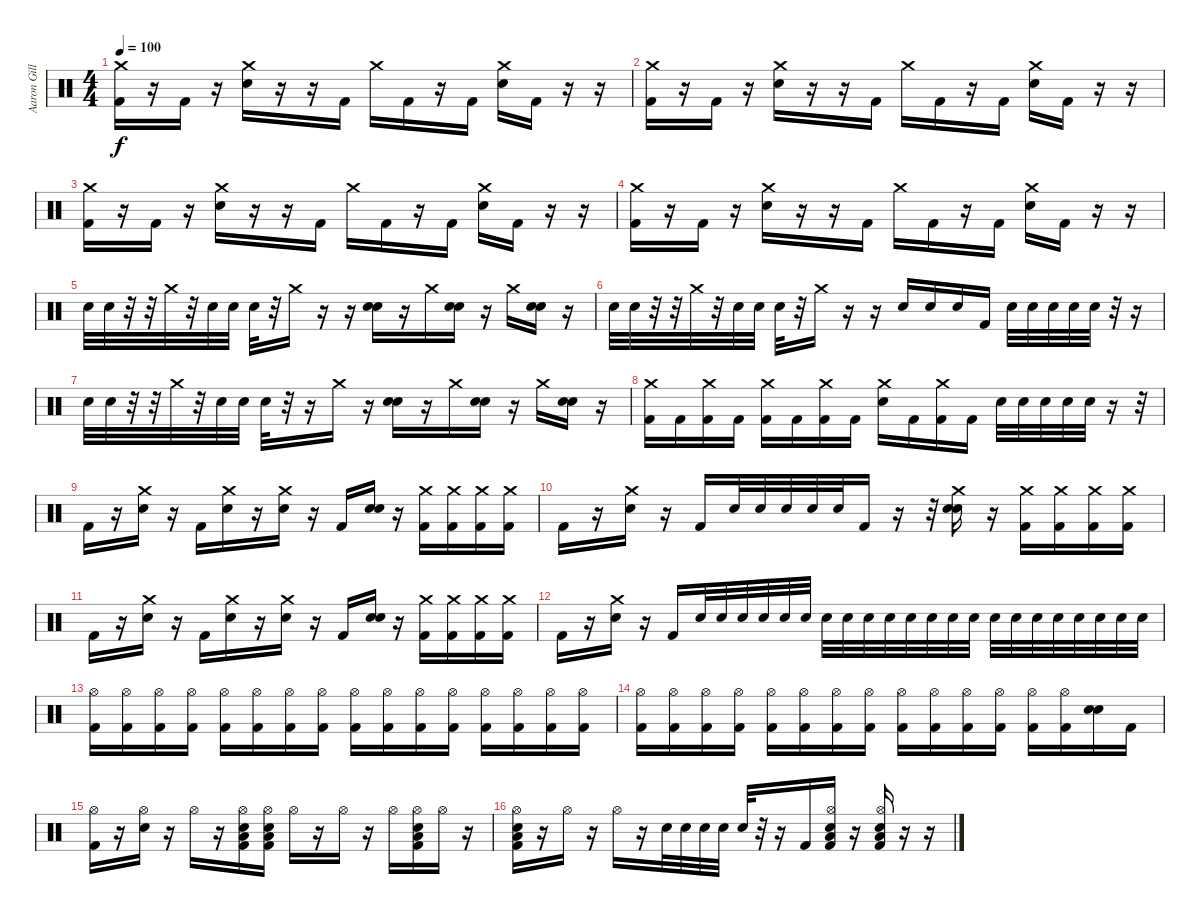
\track ("Aaron Gillespie" "Aaron Gill") {instrument percussion}
\staff {score}
\articulation defaults
\ts (4 4)
\tempo 100
\clef neutral
\ks c
("Crash medium (hit)" "Kick (hit) 2").16{dy f} r.16 "Kick (hit) 2".16 r.16 ("Crash medium (hit)" "Electric Snare (hit)").16 r.16 r.16 "Kick (hit) 2".16 "Crash medium (hit)".16 "Kick (hit) 2".16 r.16 "Kick (hit) 2".16 ("Crash medium (hit)" "Electric Snare (hit)").16 "Kick (hit) 2".16 r.16 r.16 |
("Crash medium (hit)" "Kick (hit) 2").16 r.16 "Kick (hit) 2".16 r.16 ("Crash medium (hit)" "Electric Snare (hit)").16 r.16 r.16 "Kick (hit) 2".16 "Crash medium (hit)".16 "Kick (hit) 2".16 r.16 "Kick (hit) 2".16 ("Crash medium (hit)" "Electric Snare (hit)").16 "Kick (hit) 2".16 r.16 r.16 |
("Crash medium (hit)" "Kick (hit) 2").16 r.16 "Kick (hit) 2".16 r.16 ("Crash medium (hit)" "Electric Snare (hit)").16 r.16 r.16 "Kick (hit) 2".16 "Crash medium (hit)".16 "Kick (hit) 2".16 r.16 "Kick (hit) 2".16 ("Crash medium (hit)" "Electric Snare (hit)").16 "Kick (hit) 2".16 r.16 r.16 |
("Crash medium (hit)" "Kick (hit) 2").16 r.16 "Kick (hit) 2".16 r.16 ("Crash medium (hit)" "Electric Snare (hit)").16 r.16 r.16 "Kick (hit) 2".16 "Crash medium (hit)".16 "Kick (hit) 2".16 r.16 "Kick (hit) 2".16 ("Crash medium (hit)" "Electric Snare (hit)").16 "Kick (hit) 2".16 r.16 r.16 |
"Electric Snare (hit)".32 "Electric Snare (hit)".32 r.32 r.32 "Crash medium (hit)".32 r.32 "Electric Snare (hit)".32 "Electric Snare (hit)".32 "Electric Snare (hit)".32 r.32 "Crash medium (hit)".16 r.16 r.16 ("Electric Snare (hit)" "Electric Snare (hit)").16 r.16 "Crash medium (hit)".16 ("Electric Snare (hit)" "Electric Snare (hit)").16 r.16 "Crash medium (hit)".16 ("Electric Snare (hit)" "Electric Snare (hit)").16 r.16 |
"Electric Snare (hit)".32 "Electric Snare (hit)".32 r.32 r.32 "Crash medium (hit)".32 r.32 "Electric Snare (hit)".32 "Electric Snare (hit)".32 "Electric Snare (hit)".32 r.32 "Crash medium (hit)".16 r.16 r.16 "Electric Snare (hit)".16 "Electric Snare (hit)".16 "Electric Snare (hit)".16 "Kick (hit) 2".16 "Electric Snare (hit)".32 "Electric Snare (hit)".32 "Electric Snare (hit)".32 "Electric Snare (hit)".32 "Electric Snare (hit)".32 r.32 r.16 |
"Electric Snare (hit)".32 "Electric Snare (hit)".32 r.32 r.32 "Crash medium (hit)".32 r.32 "Electric Snare (hit)".32 "Electric Snare (hit)".32 "Electric Snare (hit)".32 r.32 r.16 "Crash medium (hit)".16 r.16 ("Electric Snare (hit)" "Electric Snare (hit)").16 r.16 "Crash medium (hit)".16 ("Electric Snare (hit)" "Electric Snare (hit)").16 r.16 "Crash medium (hit)".16 ("Electric Snare (hit)" "Electric Snare (hit)").16 r.16 |
("Crash medium (hit)" "Kick (hit) 2").16 "Kick (hit) 2".16 ("Crash medium (hit)" "Kick (hit) 2").16 "Kick (hit) 2".16 ("Crash medium (hit)" "Kick (hit) 2").16 "Kick (hit) 2".16 ("Crash medium (hit)" "Kick (hit) 2").16 "Kick (hit) 2".16 ("Crash medium (hit)" "Electric Snare (hit)").16 "Kick (hit) 2".16 ("Crash medium (hit)" "Kick (hit) 2").16 "Kick (hit) 2".16 "Electric Snare (hit)".32 "Electric Snare (hit)".32 "Electric Snare (hit)".32 "Electric Snare (hit)".32 "Electric Snare (hit)".32 r.16 r.32 |
"Kick (hit) 2".16 r.16 ("Crash medium (hit)" "Electric Snare (hit)").16 r.16 "Kick (hit) 2".16 ("Crash medium (hit)" "Electric Snare (hit)").16 r.16 ("Crash medium (hit)" "Electric Snare (hit)").16 r.16 "Kick (hit) 2".16 ("Electric Snare (hit)" "Electric Snare (hit)").16 r.16 ("Crash medium (hit)" "Kick (hit) 2").16 ("Crash medium (hit)" "Kick (hit) 2").16 ("Crash medium (hit)" "Kick (hit) 2").16 ("Crash medium (hit)" "Kick (hit) 2").16 |
"Kick (hit) 2".16 r.16 ("Crash medium (hit)" "Electric Snare (hit)").16 r.16 "Kick (hit) 2".16 "Electric Snare (hit)".32 "Electric Snare (hit)".32 "Electric Snare (hit)".32 "Electric Snare (hit)".32 "Electric Snare (hit)".32 "Kick (hit) 2".16 r.16 r.32 ("Crash medium (hit)" "Electric Snare (hit)" "Electric Snare (hit)").16 r.16 ("Crash medium (hit)" "Kick (hit) 2").16 ("Crash medium (hit)" "Kick (hit) 2").16 ("Crash medium (hit)" "Kick (hit) 2").16 ("Crash medium (hit)" "Kick (hit) 2").16 |
"Kick (hit) 2".16 r.16 ("Crash medium (hit)" "Electric Snare (hit)").16 r.16 "Kick (hit) 2".16 ("Crash medium (hit)" "Electric Snare (hit)").16 r.16 ("Crash medium (hit)" "Electric Snare (hit)").16 r.16 "Kick (hit) 2".16 ("Electric Snare (hit)" "Electric Snare (hit)").16 r.16 ("Crash medium (hit)" "Kick (hit) 2").16 ("Crash medium (hit)" "Kick (hit) 2").16 ("Crash medium (hit)" "Kick (hit) 2").16 ("Crash medium (hit)" "Kick (hit) 2").16 |
"Kick (hit) 2".16 r.16 ("Crash medium (hit)" "Electric Snare (hit)").16 r.16 "Kick (hit) 2".16 "Electric Snare (hit)".32 "Electric Snare (hit)".32 "Electric Snare (hit)".32 "Electric Snare (hit)".32 "Electric Snare (hit)".32 "Electric Snare (hit)".32 "Electric Snare (hit)".32 "Electric Snare (hit)".32 "Electric Snare (hit)".32 "Electric Snare (hit)".32 "Electric Snare (hit)".32 "Electric Snare (hit)".32 "Electric Snare (hit)".32 "Electric Snare (hit)".32 "Electric Snare (hit)".32 "Electric Snare (hit)".32 "Electric Snare (hit)".32 "Electric Snare (hit)".32 "Electric Snare (hit)".32 "Electric Snare (hit)".32 "Electric Snare (hit)".32 "Electric Snare (hit)".32 |
("Hi-Hat (open)" "Kick (hit) 2").16 ("Hi-Hat (open)" "Kick (hit) 2").16 ("Hi-Hat (open)" "Kick (hit) 2").16 ("Hi-Hat (open)" "Kick (hit) 2").16 ("Hi-Hat (open)" "Kick (hit) 2").16 ("Hi-Hat (open)" "Kick (hit) 2").16 ("Hi-Hat (open)" "Kick (hit) 2").16 ("Hi-Hat (open)" "Kick (hit) 2").16 ("Hi-Hat (open)" "Kick (hit) 2").16 ("Hi-Hat (open)" "Kick (hit) 2").16 ("Hi-Hat (open)" "Kick (hit) 2").16 ("Hi-Hat (open)" "Kick (hit) 2").16 ("Hi-Hat (open)" "Kick (hit) 2").16 ("Hi-Hat (open)" "Kick (hit) 2").16 ("Hi-Hat (open)" "Kick (hit) 2").16 ("Hi-Hat (open)" "Kick (hit) 2").16 |
("Hi-Hat (open)" "Kick (hit) 2").16 ("Hi-Hat (open)" "Kick (hit) 2").16 ("Hi-Hat (open)" "Kick (hit) 2").16 ("Hi-Hat (open)" "Kick (hit) 2").16 ("Hi-Hat (open)" "Kick (hit) 2").16 ("Hi-Hat (open)" "Kick (hit) 2").16 ("Hi-Hat (open)" "Kick (hit) 2").16 ("Hi-Hat (open)" "Kick (hit) 2").16 ("Hi-Hat (open)" "Kick (hit) 2").16 ("Hi-Hat (open)" "Kick (hit) 2").16 ("Hi-Hat (open)" "Kick (hit) 2").16 ("Hi-Hat (open)" "Kick (hit) 2").16 ("Hi-Hat (open)" "Kick (hit) 2").16 ("Hi-Hat (open)" "Kick (hit) 2").16 ("Electric Snare (hit)" "Electric Snare (hit)").16 "Kick (hit) 2".16 |
("Hi-Hat (open)" "Kick (hit) 2").16 r.16 ("Hi-Hat (open)" "Electric Snare (hit)").16 r.16 "Hi-Hat (open)".16 r.16 ("Hi-Hat (open)" "Low Floor Tom (hit)" "Electric Snare (hit)" "Kick (hit) 2").16 ("Hi-Hat (open)" "Low Floor Tom (hit)" "Electric Snare (hit)" "Kick (hit) 2").16 "Hi-Hat (open)".16 r.16 "Hi-Hat (open)".16 r.16 "Hi-Hat (open)".16 ("Hi-Hat (open)" "Low Floor Tom (hit)" "Electric Snare (hit)" "Kick (hit) 2").16 "Hi-Hat (open)".16 r.16 |
("Hi-Hat (open)" "Low Floor Tom (hit)" "Electric Snare (hit)" "Kick (hit) 2").16 r.16 "Hi-Hat (open)".16 r.16 "Hi-Hat (open)".16 r.16 "Electric Snare (hit)".32 "Electric Snare (hit)".32 "Electric Snare (hit)".32 "Electric Snare (hit)".32 "Electric Snare (hit)".32 r.32 r.16 "Kick (hit) 2".16 ("Hi-Hat (open)" "Low Floor Tom (hit)" "Electric Snare (hit)" "Kick (hit) 2").16 r.16 ("Hi-Hat (open)" "Low Floor Tom (hit)" "Electric Snare (hit)" "Kick (hit) 2").16 r.16 r.16
